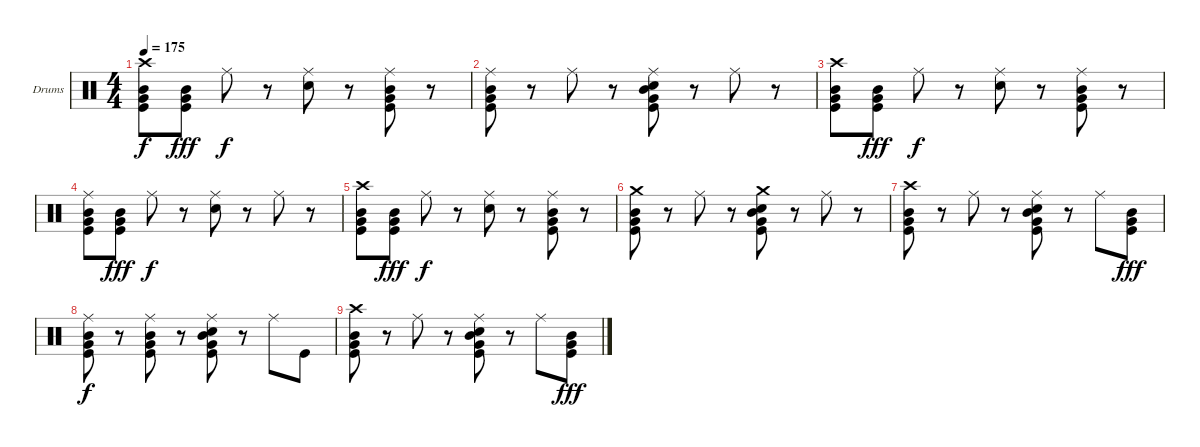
\bracketExtendMode groupsimilarinstruments
\firstSystemTrackNameOrientation horizontal
\otherSystemsTrackNameOrientation horizontal
\track ("Drumkit" "Drums") {instrument percussion}
\staff {score}
\articulation defaults
\ts (4 4)
\tempo 175
\clef neutral
\ks c
("Crash high (hit)" "Mid Tom (hit)" "Very Low Tom (hit)" "Kick (hit)").8{dy f} ("Mid Tom (hit)" "Very Low Tom (hit)" "Kick (hit)").8{dy fff} "Ride (middle)".8{dy f} r.8 ("Ride (middle)" "Snare (hit) 2").8 r.8 ("Ride (middle)" "Mid Tom (hit)" "Very Low Tom (hit)" "Kick (hit)").8 r.8 |
("Ride (middle)" "Mid Tom (hit)" "Very Low Tom (hit)" "Kick (hit)").8 r.8 "Ride (middle)".8 r.8 ("Ride (middle)" "Snare (hit) 2" "Mid Tom (hit)" "Very Low Tom (hit)" "Kick (hit)").8 r.8 "Ride (middle)".8 r.8 |
("Crash high (hit)" "Mid Tom (hit)" "Very Low Tom (hit)" "Kick (hit)").8 ("Mid Tom (hit)" "Very Low Tom (hit)" "Kick (hit)").8{dy fff} "Ride (middle)".8{dy f} r.8 ("Ride (middle)" "Snare (hit) 2").8 r.8 ("Ride (middle)" "Mid Tom (hit)" "Very Low Tom (hit)" "Kick (hit)").8 r.8 |
("Ride (middle)" "Mid Tom (hit)" "Very Low Tom (hit)" "Kick (hit)").8 ("Mid Tom (hit)" "Very Low Tom (hit)" "Kick (hit)").8{dy fff} "Ride (middle)".8{dy f} r.8 ("Ride (middle)" "Snare (hit) 2").8 r.8 "Ride (middle)".8 r.8 |
("Crash high (hit)" "Mid Tom (hit)" "Very Low Tom (hit)" "Kick (hit)").8 ("Mid Tom (hit)" "Very Low Tom (hit)" "Kick (hit)").8{dy fff} "Ride (middle)".8{dy f} r.8 ("Ride (middle)" "Snare (hit) 2").8 r.8 ("Ride (middle)" "Mid Tom (hit)" "Very Low Tom (hit)" "Kick (hit)").8 r.8 |
("Crash medium (hit)" "Mid Tom (hit)" "Very Low Tom (hit)" "Kick (hit)").8 r.8 "Ride (middle)".8 r.8 ("Crash medium (hit)" "Snare (hit) 2" "Mid Tom (hit)" "Very Low Tom (hit)" "Kick (hit)").8 r.8 "Ride (middle)".8 r.8 |
("Crash high (hit)" "Mid Tom (hit)" "Very Low Tom (hit)" "Kick (hit)").8 r.8 "Ride (middle)".8 r.8 ("Ride (middle)" "Snare (hit) 2" "Mid Tom (hit)" "Very Low Tom (hit)" "Kick (hit)").8 r.8 "Ride (middle)".8 ("Mid Tom (hit)" "Very Low Tom (hit)" "Kick (hit)").8{dy fff} |
("Ride (middle)" "Mid Tom (hit)" "Very Low Tom (hit)" "Kick (hit)").8{dy f} r.8 ("Ride (middle)" "Mid Tom (hit)" "Very Low Tom (hit)" "Kick (hit)").8 r.8 ("Ride (middle)" "Snare (hit) 2" "Mid Tom (hit)" "Very Low Tom (hit)" "Kick (hit)").8 r.8 "Ride (middle)".8 "Kick (hit)".8 |
("Crash high (hit)" "Mid Tom (hit)" "Very Low Tom (hit)" "Kick (hit)").8 r.8 "Ride (middle)".8 r.8 ("Ride (middle)" "Snare (hit) 2" "Mid Tom (hit)" "Very Low Tom (hit)" "Kick (hit)").8 r.8 "Ride (middle)".8 ("Mid Tom (hit)" "Very Low Tom (hit)" "Kick (hit)").8{dy fff}
